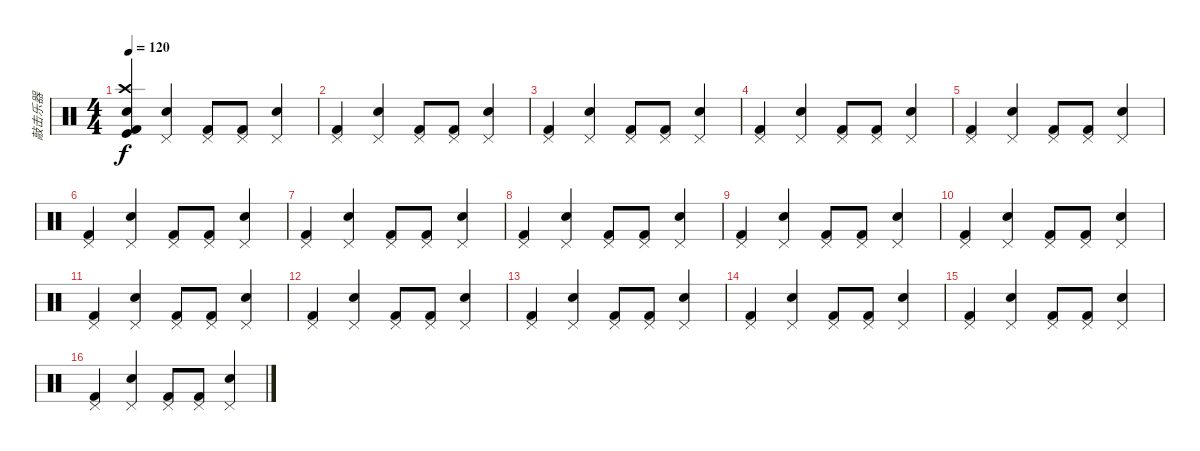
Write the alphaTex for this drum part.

\track ("敲击乐器" "敲击乐器") {instrument percussion}
\staff {score}
\articulation defaults
\ts (4 4)
\tempo 120
\clef neutral
\ks c
("Kick (hit) 2" "Crash high (hit)" "Kick (hit)" "Metronome (bell)").4{dy f} ("Snare (hit) 2" "Pedal Hi-Hat (hit)").4 ("Kick (hit) 2" "Pedal Hi-Hat (hit)").8 ("Kick (hit) 2" "Pedal Hi-Hat (hit)").8 ("Snare (hit) 2" "Pedal Hi-Hat (hit)").4 |
("Kick (hit) 2" "Pedal Hi-Hat (hit)").4 ("Snare (hit) 2" "Pedal Hi-Hat (hit)").4 ("Kick (hit) 2" "Pedal Hi-Hat (hit)").8 ("Kick (hit) 2" "Pedal Hi-Hat (hit)").8 ("Snare (hit) 2" "Pedal Hi-Hat (hit)").4 |
("Kick (hit) 2" "Pedal Hi-Hat (hit)").4 ("Snare (hit) 2" "Pedal Hi-Hat (hit)").4 ("Kick (hit) 2" "Pedal Hi-Hat (hit)").8 ("Kick (hit) 2" "Pedal Hi-Hat (hit)").8 ("Snare (hit) 2" "Pedal Hi-Hat (hit)").4 |
("Kick (hit) 2" "Pedal Hi-Hat (hit)").4 ("Snare (hit) 2" "Pedal Hi-Hat (hit)").4 ("Kick (hit) 2" "Pedal Hi-Hat (hit)").8 ("Kick (hit) 2" "Pedal Hi-Hat (hit)").8 ("Snare (hit) 2" "Pedal Hi-Hat (hit)").4 |
("Kick (hit) 2" "Pedal Hi-Hat (hit)").4 ("Snare (hit) 2" "Pedal Hi-Hat (hit)").4 ("Kick (hit) 2" "Pedal Hi-Hat (hit)").8 ("Kick (hit) 2" "Pedal Hi-Hat (hit)").8 ("Snare (hit) 2" "Pedal Hi-Hat (hit)").4 |
("Kick (hit) 2" "Pedal Hi-Hat (hit)").4 ("Snare (hit) 2" "Pedal Hi-Hat (hit)").4 ("Kick (hit) 2" "Pedal Hi-Hat (hit)").8 ("Kick (hit) 2" "Pedal Hi-Hat (hit)").8 ("Snare (hit) 2" "Pedal Hi-Hat (hit)").4 |
("Kick (hit) 2" "Pedal Hi-Hat (hit)").4 ("Snare (hit) 2" "Pedal Hi-Hat (hit)").4 ("Kick (hit) 2" "Pedal Hi-Hat (hit)").8 ("Kick (hit) 2" "Pedal Hi-Hat (hit)").8 ("Snare (hit) 2" "Pedal Hi-Hat (hit)").4 |
("Kick (hit) 2" "Pedal Hi-Hat (hit)").4 ("Snare (hit) 2" "Pedal Hi-Hat (hit)").4 ("Kick (hit) 2" "Pedal Hi-Hat (hit)").8 ("Kick (hit) 2" "Pedal Hi-Hat (hit)").8 ("Snare (hit) 2" "Pedal Hi-Hat (hit)").4 |
("Kick (hit) 2" "Pedal Hi-Hat (hit)").4 ("Snare (hit) 2" "Pedal Hi-Hat (hit)").4 ("Kick (hit) 2" "Pedal Hi-Hat (hit)").8 ("Kick (hit) 2" "Pedal Hi-Hat (hit)").8 ("Snare (hit) 2" "Pedal Hi-Hat (hit)").4 |
("Kick (hit) 2" "Pedal Hi-Hat (hit)").4 ("Snare (hit) 2" "Pedal Hi-Hat (hit)").4 ("Kick (hit) 2" "Pedal Hi-Hat (hit)").8 ("Kick (hit) 2" "Pedal Hi-Hat (hit)").8 ("Snare (hit) 2" "Pedal Hi-Hat (hit)").4 |
("Kick (hit) 2" "Pedal Hi-Hat (hit)").4 ("Snare (hit) 2" "Pedal Hi-Hat (hit)").4 ("Kick (hit) 2" "Pedal Hi-Hat (hit)").8 ("Kick (hit) 2" "Pedal Hi-Hat (hit)").8 ("Snare (hit) 2" "Pedal Hi-Hat (hit)").4 |
("Kick (hit) 2" "Pedal Hi-Hat (hit)").4 ("Snare (hit) 2" "Pedal Hi-Hat (hit)").4 ("Kick (hit) 2" "Pedal Hi-Hat (hit)").8 ("Kick (hit) 2" "Pedal Hi-Hat (hit)").8 ("Snare (hit) 2" "Pedal Hi-Hat (hit)").4 |
("Kick (hit) 2" "Pedal Hi-Hat (hit)").4 ("Snare (hit) 2" "Pedal Hi-Hat (hit)").4 ("Kick (hit) 2" "Pedal Hi-Hat (hit)").8 ("Kick (hit) 2" "Pedal Hi-Hat (hit)").8 ("Snare (hit) 2" "Pedal Hi-Hat (hit)").4 |
("Kick (hit) 2" "Pedal Hi-Hat (hit)").4 ("Snare (hit) 2" "Pedal Hi-Hat (hit)").4 ("Kick (hit) 2" "Pedal Hi-Hat (hit)").8 ("Kick (hit) 2" "Pedal Hi-Hat (hit)").8 ("Snare (hit) 2" "Pedal Hi-Hat (hit)").4 |
("Kick (hit) 2" "Pedal Hi-Hat (hit)").4 ("Snare (hit) 2" "Pedal Hi-Hat (hit)").4 ("Kick (hit) 2" "Pedal Hi-Hat (hit)").8 ("Kick (hit) 2" "Pedal Hi-Hat (hit)").8 ("Snare (hit) 2" "Pedal Hi-Hat (hit)").4 |
("Kick (hit) 2" "Pedal Hi-Hat (hit)").4 ("Snare (hit) 2" "Pedal Hi-Hat (hit)").4 ("Kick (hit) 2" "Pedal Hi-Hat (hit)").8 ("Kick (hit) 2" "Pedal Hi-Hat (hit)").8 ("Snare (hit) 2" "Pedal Hi-Hat (hit)").4
